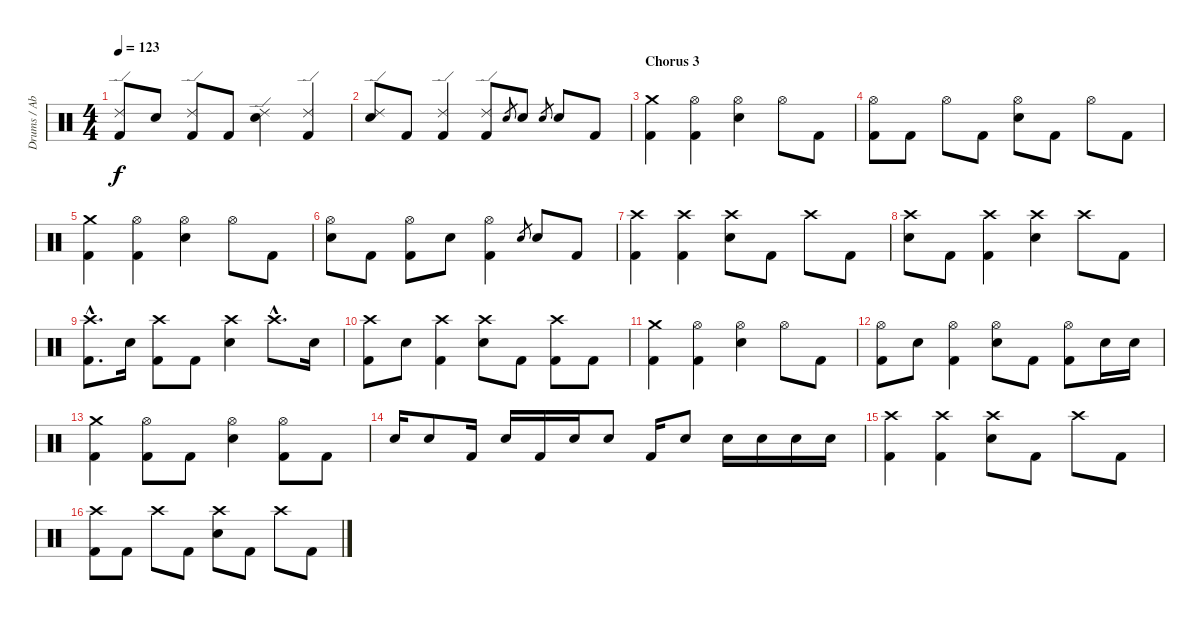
\track ("Drums / Abe Cunningham" "Drums / Ab") {instrument percussion}
\staff {score}
\articulation defaults
\ts (4 4)
\tempo 123
\clef neutral
\ks c
("Ride (edge) 2" "Kick (hit) 2").8{dy f} "Electric Snare (hit)".8 ("Ride (edge) 2" "Kick (hit) 2").8 "Kick (hit) 2".8 ("Ride (edge) 2" "Electric Snare (hit)").4 ("Ride (edge) 2" "Kick (hit) 2").4 |
("Ride (edge) 2" "Electric Snare (hit)").8 "Kick (hit) 2".8 ("Ride (edge) 2" "Kick (hit) 2").4 ("Ride (edge) 2" "Kick (hit) 2").8 "Electric Snare (hit)".8{gr} "Electric Snare (hit)".8 "Electric Snare (hit)".8{gr} "Electric Snare (hit)".8 "Kick (hit) 2".8 |
\section ("" "Chorus 3")
("Crash medium (hit)" "Kick (hit) 2").4 ("Hi-Hat (open)" "Kick (hit) 2").4 ("Hi-Hat (open)" "Electric Snare (hit)").4 "Hi-Hat (open)".8 "Kick (hit) 2".8 |
("Hi-Hat (open)" "Kick (hit) 2").8 "Kick (hit) 2".8 "Hi-Hat (open)".8 "Kick (hit) 2".8 ("Hi-Hat (open)" "Electric Snare (hit)").8 "Kick (hit) 2".8 "Hi-Hat (open)".8 "Kick (hit) 2".8 |
("Crash medium (hit)" "Kick (hit) 2").4 ("Hi-Hat (open)" "Kick (hit) 2").4 ("Hi-Hat (open)" "Electric Snare (hit)").4 "Hi-Hat (open)".8 "Kick (hit) 2".8 |
("Hi-Hat (open)" "Electric Snare (hit)").8 "Kick (hit) 2".8 ("Hi-Hat (open)" "Kick (hit) 2").8 "Electric Snare (hit)".8 ("Hi-Hat (open)" "Kick (hit) 2").4 "Electric Snare (hit)".8{gr} "Electric Snare (hit)".8 "Kick (hit) 2".8 |
("Crash high (hit)" "Kick (hit) 2").4 ("Crash high (hit)" "Kick (hit) 2").4 ("Crash high (hit)" "Electric Snare (hit)").8 "Kick (hit) 2".8 "Crash high (hit)".8 "Kick (hit) 2".8 |
("Crash high (hit)" "Electric Snare (hit)").8 "Kick (hit) 2".8 ("Crash high (hit)" "Kick (hit) 2").4 ("Crash high (hit)" "Electric Snare (hit)").4 "Crash high (hit)".8 "Kick (hit) 2".8 |
("Crash high (hit)"{hac} "Kick (hit) 2"{hac}).8{d} "Electric Snare (hit)".16 ("Crash high (hit)" "Kick (hit) 2").8 "Kick (hit) 2".8 ("Crash high (hit)" "Electric Snare (hit)").4 "Crash high (hit)"{hac}.8{d} "Electric Snare (hit)".16 |
("Crash high (hit)" "Kick (hit) 2").8 "Electric Snare (hit)".8 ("Crash high (hit)" "Kick (hit) 2").4 ("Crash high (hit)" "Electric Snare (hit)").8 "Kick (hit) 2".8 ("Crash high (hit)" "Kick (hit) 2").8 "Kick (hit) 2".8 |
("Crash medium (hit)" "Kick (hit) 2").4 ("Hi-Hat (open)" "Kick (hit) 2").4 ("Hi-Hat (open)" "Electric Snare (hit)").4 "Hi-Hat (open)".8 "Kick (hit) 2".8 |
("Hi-Hat (open)" "Kick (hit) 2").8 "Electric Snare (hit)".8 ("Hi-Hat (open)" "Kick (hit) 2").4 ("Hi-Hat (open)" "Electric Snare (hit)").8 "Kick (hit) 2".8 ("Hi-Hat (open)" "Kick (hit) 2").8 "Electric Snare (hit)".16 "Electric Snare (hit)".16 |
("Crash medium (hit)" "Kick (hit) 2").4 ("Hi-Hat (open)" "Kick (hit) 2").8 "Kick (hit) 2".8 ("Hi-Hat (open)" "Electric Snare (hit)").4 ("Hi-Hat (open)" "Kick (hit) 2").8 "Kick (hit) 2".8 |
"Electric Snare (hit)".16 "Electric Snare (hit)".8 "Kick (hit) 2".16 "Electric Snare (hit)".16 "Kick (hit) 2".16 "Electric Snare (hit)".16 "Electric Snare (hit)".8 "Kick (hit) 2".16 "Electric Snare (hit)".8 "Electric Snare (hit)".16 "Electric Snare (hit)".16 "Electric Snare (hit)".16 "Electric Snare (hit)".16 |
("Crash high (hit)" "Kick (hit) 2").4 ("Crash high (hit)" "Kick (hit) 2").4 ("Crash high (hit)" "Electric Snare (hit)").8 "Kick (hit) 2".8 "Crash high (hit)".8 "Kick (hit) 2".8 |
("Crash high (hit)" "Kick (hit) 2").8 "Kick (hit) 2".8 "Crash high (hit)".8 "Kick (hit) 2".8 ("Crash high (hit)" "Electric Snare (hit)").8 "Kick (hit) 2".8 "Crash high (hit)".8 "Kick (hit) 2".8
